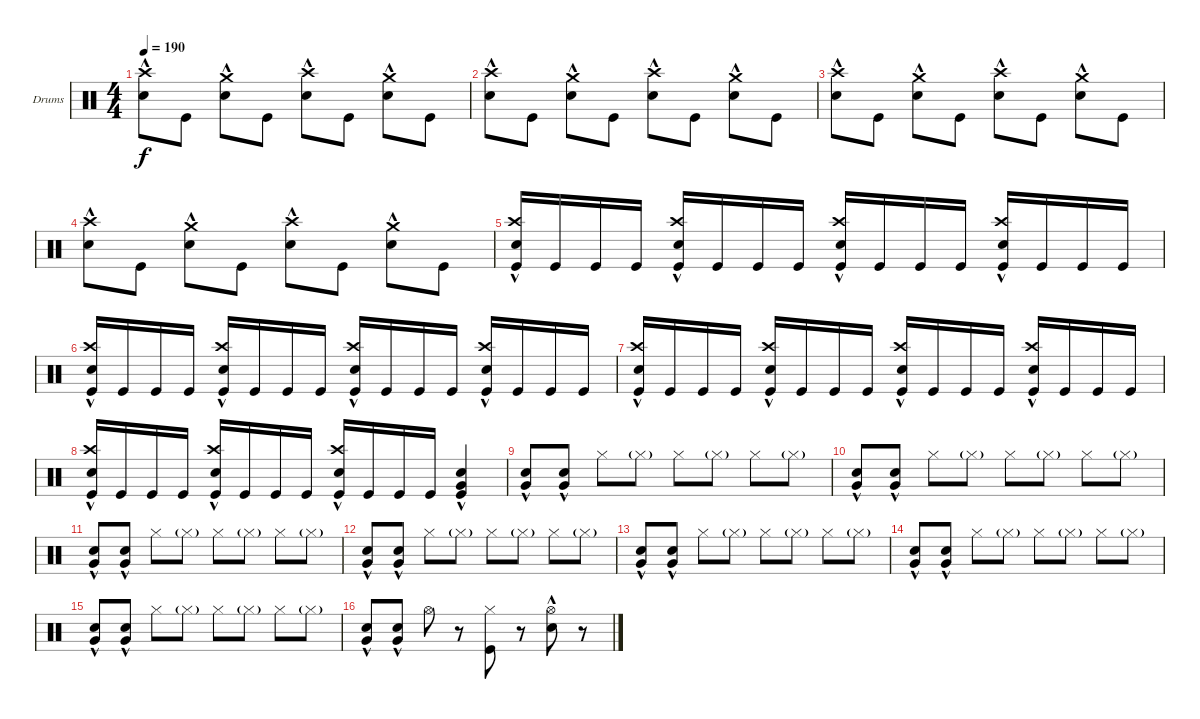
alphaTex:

\bracketExtendMode groupsimilarinstruments
\firstSystemTrackNameOrientation horizontal
\otherSystemsTrackNameOrientation horizontal
\track ("Drumkit" "Drums") {instrument percussion}
\staff {score}
\articulation defaults
\ts (4 4)
\tempo 190
\clef neutral
\scale
0.333333
\ks c
("Snare (hit) 2"{hac} "Crash high (hit)").8{dy f} "Kick (hit)".8 ("Snare (hit) 2"{hac} "Crash medium (hit)").8 "Kick (hit)".8 ("Snare (hit) 2"{hac} "Crash high (hit)").8 "Kick (hit)".8 ("Snare (hit) 2"{hac} "Crash medium (hit)").8 "Kick (hit)".8 |
\scale
0.333333 ("Snare (hit) 2"{hac} "Crash high (hit)").8 "Kick (hit)".8 ("Snare (hit) 2"{hac} "Crash medium (hit)").8 "Kick (hit)".8 ("Snare (hit) 2"{hac} "Crash high (hit)").8 "Kick (hit)".8 ("Snare (hit) 2"{hac} "Crash medium (hit)").8 "Kick (hit)".8 |
\scale
0.333333 ("Snare (hit) 2"{hac} "Crash high (hit)").8 "Kick (hit)".8 ("Snare (hit) 2"{hac} "Crash medium (hit)").8 "Kick (hit)".8 ("Snare (hit) 2"{hac} "Crash high (hit)").8 "Kick (hit)".8 ("Snare (hit) 2"{hac} "Crash medium (hit)").8 "Kick (hit)".8 |
\scale
0.333333 ("Snare (hit) 2"{hac} "Crash high (hit)").8 "Kick (hit)".8 ("Snare (hit) 2"{hac} "Crash medium (hit)").8 "Kick (hit)".8 ("Snare (hit) 2"{hac} "Crash high (hit)").8 "Kick (hit)".8 ("Snare (hit) 2"{hac} "Crash medium (hit)").8 "Kick (hit)".8 |
\scale
0.333333 ("Kick (hit)" "Snare (hit) 2"{hac} "Crash high (hit)").16 "Kick (hit)".16 "Kick (hit)".16 "Kick (hit)".16 ("Kick (hit)" "Snare (hit) 2"{hac} "Crash high (hit)").16 "Kick (hit)".16 "Kick (hit)".16 "Kick (hit)".16 ("Kick (hit)" "Snare (hit) 2"{hac} "Crash high (hit)").16 "Kick (hit)".16 "Kick (hit)".16 "Kick (hit)".16 ("Kick (hit)" "Snare (hit) 2"{hac} "Crash high (hit)").16 "Kick (hit)".16 "Kick (hit)".16 "Kick (hit)".16 |
\scale
0.333333 ("Kick (hit)" "Snare (hit) 2"{hac} "Crash high (hit)").16 "Kick (hit)".16 "Kick (hit)".16 "Kick (hit)".16 ("Kick (hit)" "Snare (hit) 2"{hac} "Crash high (hit)").16 "Kick (hit)".16 "Kick (hit)".16 "Kick (hit)".16 ("Kick (hit)" "Snare (hit) 2"{hac} "Crash high (hit)").16 "Kick (hit)".16 "Kick (hit)".16 "Kick (hit)".16 ("Kick (hit)" "Snare (hit) 2"{hac} "Crash high (hit)").16 "Kick (hit)".16 "Kick (hit)".16 "Kick (hit)".16 |
\scale
0.333333 ("Kick (hit)" "Snare (hit) 2"{hac} "Crash high (hit)").16 "Kick (hit)".16 "Kick (hit)".16 "Kick (hit)".16 ("Kick (hit)" "Snare (hit) 2"{hac} "Crash high (hit)").16 "Kick (hit)".16 "Kick (hit)".16 "Kick (hit)".16 ("Kick (hit)" "Snare (hit) 2"{hac} "Crash high (hit)").16 "Kick (hit)".16 "Kick (hit)".16 "Kick (hit)".16 ("Kick (hit)" "Snare (hit) 2"{hac} "Crash high (hit)").16 "Kick (hit)".16 "Kick (hit)".16 "Kick (hit)".16 |
\scale
0.333333 ("Kick (hit)" "Snare (hit) 2"{hac} "Crash high (hit)").16 "Kick (hit)".16 "Kick (hit)".16 "Kick (hit)".16 ("Kick (hit)" "Snare (hit) 2"{hac} "Crash high (hit)").16 "Kick (hit)".16 "Kick (hit)".16 "Kick (hit)".16 ("Kick (hit)" "Snare (hit) 2"{hac} "Crash high (hit)").16 "Kick (hit)".16 "Kick (hit)".16 "Kick (hit)".16 ("Kick (hit)" "Snare (hit) 2"{hac} "Very Low Tom (hit)"{hac}).4 |
\scale
0.333333 ("Snare (hit) 2"{hac} "Very Low Tom (hit)").8 ("Snare (hit) 2"{hac} "Very Low Tom (hit)").8 "Hi-Hat (closed)".8 "Hi-Hat (closed)"{g}.8 "Hi-Hat (closed)".8 "Hi-Hat (closed)"{g}.8 "Hi-Hat (closed)".8 "Hi-Hat (closed)"{g}.8 |
\scale
0.333333 ("Snare (hit) 2"{hac} "Very Low Tom (hit)").8 ("Snare (hit) 2"{hac} "Very Low Tom (hit)").8 "Hi-Hat (closed)".8 "Hi-Hat (closed)"{g}.8 "Hi-Hat (closed)".8 "Hi-Hat (closed)"{g}.8 "Hi-Hat (closed)".8 "Hi-Hat (closed)"{g}.8 |
\scale
0.333333 ("Snare (hit) 2"{hac} "Very Low Tom (hit)").8 ("Snare (hit) 2"{hac} "Very Low Tom (hit)").8 "Hi-Hat (closed)".8 "Hi-Hat (closed)"{g}.8 "Hi-Hat (closed)".8 "Hi-Hat (closed)"{g}.8 "Hi-Hat (closed)".8 "Hi-Hat (closed)"{g}.8 |
\scale
0.333333 ("Snare (hit) 2"{hac} "Very Low Tom (hit)").8 ("Snare (hit) 2"{hac} "Very Low Tom (hit)").8 "Hi-Hat (closed)".8 "Hi-Hat (closed)"{g}.8 "Hi-Hat (closed)".8 "Hi-Hat (closed)"{g}.8 "Hi-Hat (closed)".8 "Hi-Hat (closed)"{g}.8 |
\scale
0.333333 ("Snare (hit) 2"{hac} "Very Low Tom (hit)").8 ("Snare (hit) 2"{hac} "Very Low Tom (hit)").8 "Hi-Hat (closed)".8 "Hi-Hat (closed)"{g}.8 "Hi-Hat (closed)".8 "Hi-Hat (closed)"{g}.8 "Hi-Hat (closed)".8 "Hi-Hat (closed)"{g}.8 |
\scale
0.333333 ("Snare (hit) 2"{hac} "Very Low Tom (hit)").8 ("Snare (hit) 2"{hac} "Very Low Tom (hit)").8 "Hi-Hat (closed)".8 "Hi-Hat (closed)"{g}.8 "Hi-Hat (closed)".8 "Hi-Hat (closed)"{g}.8 "Hi-Hat (closed)".8 "Hi-Hat (closed)"{g}.8 |
\scale
0.333333 ("Snare (hit) 2"{hac} "Very Low Tom (hit)").8 ("Snare (hit) 2"{hac} "Very Low Tom (hit)").8 "Hi-Hat (closed)".8 "Hi-Hat (closed)"{g}.8 "Hi-Hat (closed)".8 "Hi-Hat (closed)"{g}.8 "Hi-Hat (closed)".8 "Hi-Hat (closed)"{g}.8 |
\scale
0.333333 ("Snare (hit) 2"{hac} "Very Low Tom (hit)").8 ("Snare (hit) 2"{hac} "Very Low Tom (hit)").8 "Hi-Hat (open)".8 r.8 ("Hi-Hat (closed)" "Kick (hit)").8 r.8 ("Hi-Hat (open)" "Snare (hit) 2"{hac}).8 r.8
